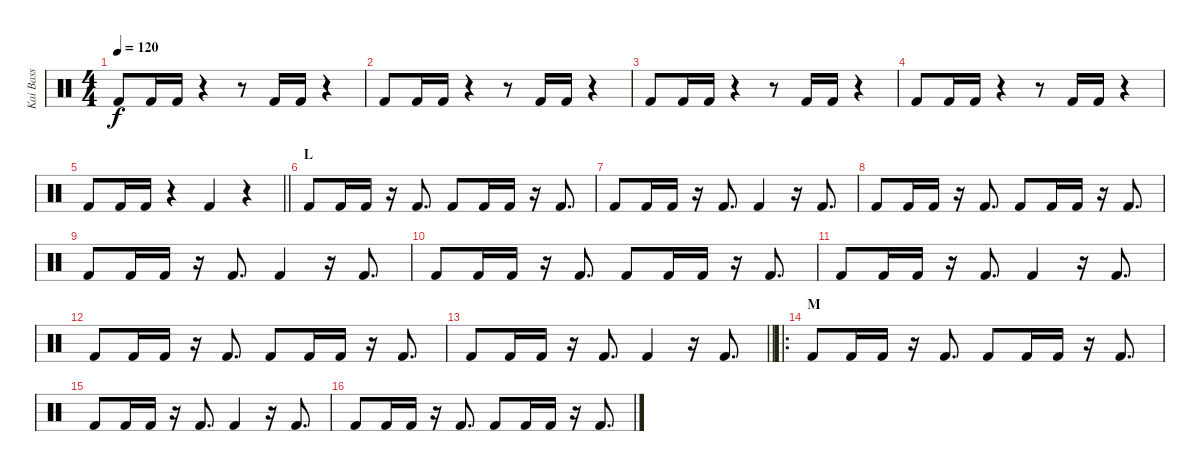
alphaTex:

\track ("Kai Bass" "Kai Bass") {instrument percussion}
\staff {score}
\articulation defaults
\ts (4 4)
\tempo 120
\clef neutral
\ks c "Kick (hit) 2".8{dy f} "Kick (hit) 2".16 "Kick (hit) 2".16
r.4 r.8 "Kick (hit) 2".16 "Kick (hit) 2".16 r.4 |
"Kick (hit) 2".8 "Kick (hit) 2".16 "Kick (hit) 2".16 r.4 r.8 "Kick (hit) 2".16 "Kick (hit) 2".16 r.4 |
"Kick (hit) 2".8 "Kick (hit) 2".16 "Kick (hit) 2".16 r.4 r.8 "Kick (hit) 2".16 "Kick (hit) 2".16 r.4 |
"Kick (hit) 2".8 "Kick (hit) 2".16 "Kick (hit) 2".16 r.4 r.8 "Kick (hit) 2".16 "Kick (hit) 2".16 r.4 |
\barLineRight lightlight "Kick (hit) 2".8 "Kick (hit) 2".16 "Kick (hit) 2".16
r.4 "Kick (hit) 2".4 r.4 |
\section ("" "L")
"Kick (hit) 2".8 "Kick (hit) 2".16 "Kick (hit) 2".16 r.16 "Kick (hit) 2".8{d} "Kick (hit) 2".8 "Kick (hit) 2".16 "Kick (hit) 2".16 r.16 "Kick (hit) 2".8{d} |
"Kick (hit) 2".8 "Kick (hit) 2".16 "Kick (hit) 2".16 r.16 "Kick (hit) 2".8{d} "Kick (hit) 2".4 r.16 "Kick (hit) 2".8{d} |
"Kick (hit) 2".8 "Kick (hit) 2".16 "Kick (hit) 2".16 r.16 "Kick (hit) 2".8{d} "Kick (hit) 2".8 "Kick (hit) 2".16 "Kick (hit) 2".16 r.16 "Kick (hit) 2".8{d} |
"Kick (hit) 2".8 "Kick (hit) 2".16 "Kick (hit) 2".16 r.16 "Kick (hit) 2".8{d} "Kick (hit) 2".4 r.16 "Kick (hit) 2".8{d} |
"Kick (hit) 2".8 "Kick (hit) 2".16 "Kick (hit) 2".16 r.16 "Kick (hit) 2".8{d} "Kick (hit) 2".8 "Kick (hit) 2".16 "Kick (hit) 2".16 r.16 "Kick (hit) 2".8{d} |
"Kick (hit) 2".8 "Kick (hit) 2".16 "Kick (hit) 2".16 r.16 "Kick (hit) 2".8{d} "Kick (hit) 2".4 r.16 "Kick (hit) 2".8{d} |
"Kick (hit) 2".8 "Kick (hit) 2".16 "Kick (hit) 2".16 r.16 "Kick (hit) 2".8{d} "Kick (hit) 2".8 "Kick (hit) 2".16 "Kick (hit) 2".16 r.16 "Kick (hit) 2".8{d} |
\barLineRight lightlight "Kick (hit) 2".8 "Kick (hit) 2".16 "Kick (hit) 2".16
r.16 "Kick (hit) 2".8{d} "Kick (hit) 2".4 r.16 "Kick (hit) 2".8{d} |
\ro
\section ("" "M")
"Kick (hit) 2".8 "Kick (hit) 2".16 "Kick (hit) 2".16 r.16 "Kick (hit) 2".8{d} "Kick (hit) 2".8 "Kick (hit) 2".16 "Kick (hit) 2".16 r.16 "Kick (hit) 2".8{d} |
"Kick (hit) 2".8 "Kick (hit) 2".16 "Kick (hit) 2".16 r.16 "Kick (hit) 2".8{d} "Kick (hit) 2".4 r.16 "Kick (hit) 2".8{d} |
"Kick (hit) 2".8 "Kick (hit) 2".16 "Kick (hit) 2".16 r.16 "Kick (hit) 2".8{d} "Kick (hit) 2".8 "Kick (hit) 2".16 "Kick (hit) 2".16 r.16 "Kick (hit) 2".8{d}
